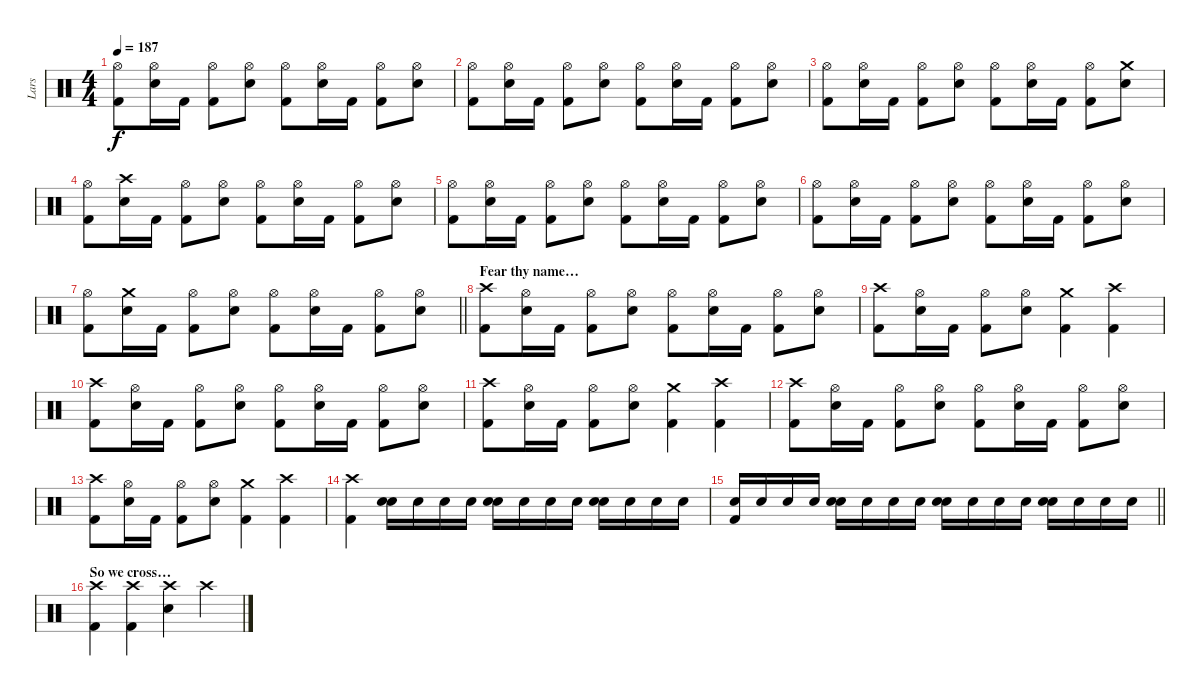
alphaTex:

\track ("Lars" "Lars") {instrument percussion}
\staff {score}
\articulation defaults
\ts (4 4)
\tempo 187
\clef neutral
\ks c
("Hi-Hat (open)" "Kick (hit) 2").8{dy f} ("Hi-Hat (open)" "Snare (hit) 2").16 "Kick (hit) 2".16 ("Hi-Hat (open)" "Kick (hit) 2").8 ("Hi-Hat (open)" "Snare (hit) 2").8 ("Hi-Hat (open)" "Kick (hit) 2").8 ("Hi-Hat (open)" "Snare (hit) 2").16 "Kick (hit) 2".16 ("Hi-Hat (open)" "Kick (hit) 2").8 ("Hi-Hat (open)" "Snare (hit) 2").8 |
("Hi-Hat (open)" "Kick (hit) 2").8 ("Hi-Hat (open)" "Snare (hit) 2").16 "Kick (hit) 2".16 ("Hi-Hat (open)" "Kick (hit) 2").8 ("Hi-Hat (open)" "Snare (hit) 2").8 ("Hi-Hat (open)" "Kick (hit) 2").8 ("Hi-Hat (open)" "Snare (hit) 2").16 "Kick (hit) 2".16 ("Hi-Hat (open)" "Kick (hit) 2").8 ("Hi-Hat (open)" "Snare (hit) 2").8 |
("Hi-Hat (open)" "Kick (hit) 2").8 ("Hi-Hat (open)" "Snare (hit) 2").16 "Kick (hit) 2".16 ("Hi-Hat (open)" "Kick (hit) 2").8 ("Hi-Hat (open)" "Snare (hit) 2").8 ("Hi-Hat (open)" "Kick (hit) 2").8 ("Hi-Hat (open)" "Snare (hit) 2").16 "Kick (hit) 2".16 ("Hi-Hat (open)" "Kick (hit) 2").8 ("Crash medium (hit)" "Snare (hit) 2").8 |
("Hi-Hat (open)" "Kick (hit) 2").8 ("Crash high (hit)" "Snare (hit) 2").16 "Kick (hit) 2".16 ("Hi-Hat (open)" "Kick (hit) 2").8 ("Hi-Hat (open)" "Snare (hit) 2").8 ("Hi-Hat (open)" "Kick (hit) 2").8 ("Hi-Hat (open)" "Snare (hit) 2").16 "Kick (hit) 2".16 ("Hi-Hat (open)" "Kick (hit) 2").8 ("Hi-Hat (open)" "Snare (hit) 2").8 |
("Hi-Hat (open)" "Kick (hit) 2").8 ("Hi-Hat (open)" "Snare (hit) 2").16 "Kick (hit) 2".16 ("Hi-Hat (open)" "Kick (hit) 2").8 ("Hi-Hat (open)" "Snare (hit) 2").8 ("Hi-Hat (open)" "Kick (hit) 2").8 ("Hi-Hat (open)" "Snare (hit) 2").16 "Kick (hit) 2".16 ("Hi-Hat (open)" "Kick (hit) 2").8 ("Hi-Hat (open)" "Snare (hit) 2").8 |
("Hi-Hat (open)" "Kick (hit) 2").8 ("Hi-Hat (open)" "Snare (hit) 2").16 "Kick (hit) 2".16 ("Hi-Hat (open)" "Kick (hit) 2").8 ("Hi-Hat (open)" "Snare (hit) 2").8 ("Hi-Hat (open)" "Kick (hit) 2").8 ("Hi-Hat (open)" "Snare (hit) 2").16 "Kick (hit) 2".16 ("Hi-Hat (open)" "Kick (hit) 2").8 ("Hi-Hat (open)" "Snare (hit) 2").8 |
\barLineRight lightlight
("Hi-Hat (open)" "Kick (hit) 2").8 ("Crash medium (hit)" "Snare (hit) 2").16 "Kick (hit) 2".16 ("Hi-Hat (open)" "Kick (hit) 2").8 ("Hi-Hat (open)" "Snare (hit) 2").8 ("Hi-Hat (open)" "Kick (hit) 2").8 ("Hi-Hat (open)" "Snare (hit) 2").16 "Kick (hit) 2".16 ("Hi-Hat (open)" "Kick (hit) 2").8 ("Hi-Hat (open)" "Snare (hit) 2").8 |
\section ("" "Fear thy name…")
("Crash high (hit)" "Kick (hit) 2").8 ("Hi-Hat (open)" "Snare (hit) 2").16 "Kick (hit) 2".16 ("Hi-Hat (open)" "Kick (hit) 2").8 ("Hi-Hat (open)" "Snare (hit) 2").8 ("Hi-Hat (open)" "Kick (hit) 2").8 ("Hi-Hat (open)" "Snare (hit) 2").16 "Kick (hit) 2".16 ("Hi-Hat (open)" "Kick (hit) 2").8 ("Hi-Hat (open)" "Snare (hit) 2").8 |
("Crash high (hit)" "Kick (hit) 2").8 ("Hi-Hat (open)" "Snare (hit) 2").16 "Kick (hit) 2".16 ("Hi-Hat (open)" "Kick (hit) 2").8 ("Hi-Hat (open)" "Snare (hit) 2").8 ("Crash medium (hit)" "Kick (hit) 2").4 ("Crash high (hit)" "Kick (hit) 2").4 |
("Crash high (hit)" "Kick (hit) 2").8 ("Hi-Hat (open)" "Snare (hit) 2").16 "Kick (hit) 2".16 ("Hi-Hat (open)" "Kick (hit) 2").8 ("Hi-Hat (open)" "Snare (hit) 2").8 ("Hi-Hat (open)" "Kick (hit) 2").8 ("Hi-Hat (open)" "Snare (hit) 2").16 "Kick (hit) 2".16 ("Hi-Hat (open)" "Kick (hit) 2").8 ("Hi-Hat (open)" "Snare (hit) 2").8 |
("Crash high (hit)" "Kick (hit) 2").8 ("Hi-Hat (open)" "Snare (hit) 2").16 "Kick (hit) 2".16 ("Hi-Hat (open)" "Kick (hit) 2").8 ("Hi-Hat (open)" "Snare (hit) 2").8 ("Crash medium (hit)" "Kick (hit) 2").4 ("Crash high (hit)" "Kick (hit) 2").4 |
("Crash high (hit)" "Kick (hit) 2").8 ("Hi-Hat (open)" "Snare (hit) 2").16 "Kick (hit) 2".16 ("Hi-Hat (open)" "Kick (hit) 2").8 ("Hi-Hat (open)" "Snare (hit) 2").8 ("Hi-Hat (open)" "Kick (hit) 2").8 ("Hi-Hat (open)" "Snare (hit) 2").16 "Kick (hit) 2".16 ("Hi-Hat (open)" "Kick (hit) 2").8 ("Hi-Hat (open)" "Snare (hit) 2").8 |
("Crash high (hit)" "Kick (hit) 2").8 ("Hi-Hat (open)" "Snare (hit) 2").16 "Kick (hit) 2".16 ("Hi-Hat (open)" "Kick (hit) 2").8 ("Hi-Hat (open)" "Snare (hit) 2").8 ("Crash medium (hit)" "Kick (hit) 2").4 ("Crash high (hit)" "Kick (hit) 2").4 |
("Crash high (hit)" "Kick (hit) 2").4 ("Electric Snare (hit)" "Snare (hit) 2").16 "Snare (hit) 2".16 "Snare (hit) 2".16 "Snare (hit) 2".16 ("Electric Snare (hit)" "Snare (hit) 2").16 "Snare (hit) 2".16 "Snare (hit) 2".16 "Snare (hit) 2".16 ("Electric Snare (hit)" "Snare (hit) 2").16 "Snare (hit) 2".16 "Snare (hit) 2".16 "Snare (hit) 2".16 |
\barLineRight lightlight
("Snare (hit) 2" "Kick (hit) 2").16 "Snare (hit) 2".16 "Snare (hit) 2".16 "Snare (hit) 2".16 ("Electric Snare (hit)" "Snare (hit) 2").16 "Snare (hit) 2".16 "Snare (hit) 2".16 "Snare (hit) 2".16 ("Electric Snare (hit)" "Snare (hit) 2").16 "Snare (hit) 2".16 "Snare (hit) 2".16 "Snare (hit) 2".16 ("Electric Snare (hit)" "Snare (hit) 2").16 "Snare (hit) 2".16 "Snare (hit) 2".16 "Snare (hit) 2".16 |
\section ("" "So we cross…")
("Crash high (hit)" "Kick (hit) 2").4 ("Crash high (hit)" "Kick (hit) 2").4 ("Crash high (hit)" "Snare (hit) 2").4 "Crash high (hit)".4
